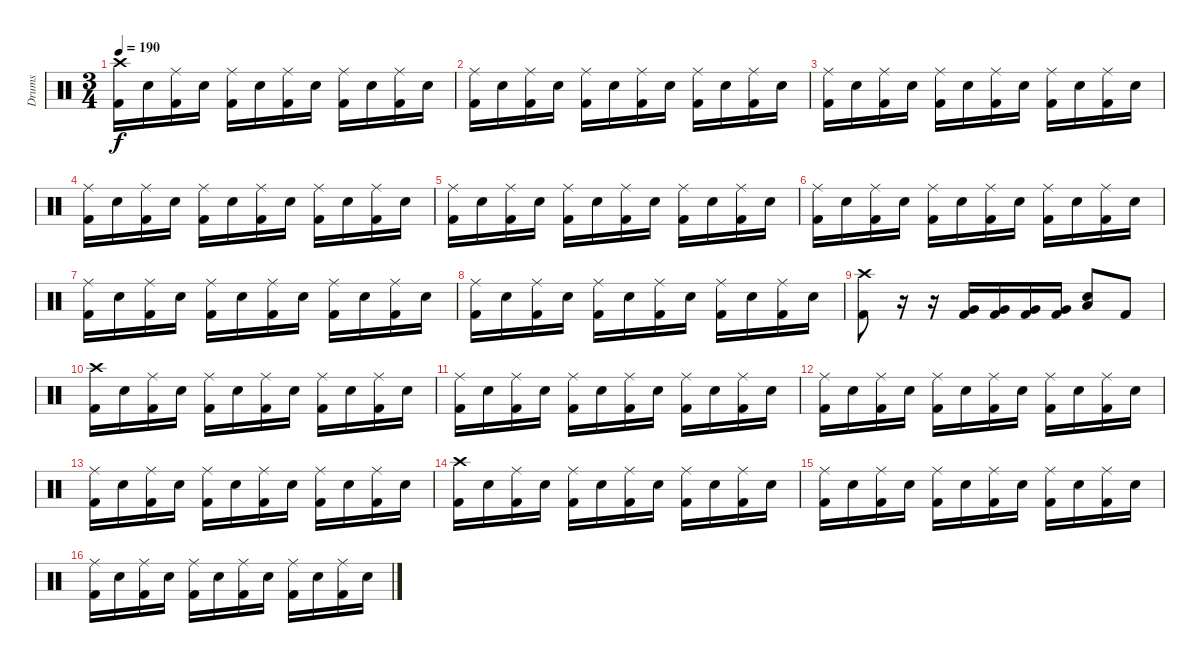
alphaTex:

\track ("Drums" "Drums") {instrument percussion}
\staff {score}
\articulation defaults
\ts (3 4)
\tempo 190
\clef neutral
\ks c
("Crash high (hit)" "Kick (hit) 2").16{dy f} "Snare (hit) 2".16 ("Ride (middle)" "Kick (hit) 2").16 "Snare (hit) 2".16 ("Ride (middle)" "Kick (hit) 2").16 "Snare (hit) 2".16 ("Ride (middle)" "Kick (hit) 2").16 "Snare (hit) 2".16 ("Ride (middle)" "Kick (hit) 2").16 "Snare (hit) 2".16 ("Ride (middle)" "Kick (hit) 2").16 "Snare (hit) 2".16 |
("Ride (middle)" "Kick (hit) 2").16 "Snare (hit) 2".16 ("Ride (middle)" "Kick (hit) 2").16 "Snare (hit) 2".16 ("Ride (middle)" "Kick (hit) 2").16 "Snare (hit) 2".16 ("Ride (middle)" "Kick (hit) 2").16 "Snare (hit) 2".16 ("Ride (middle)" "Kick (hit) 2").16 "Snare (hit) 2".16 ("Ride (middle)" "Kick (hit) 2").16 "Snare (hit) 2".16 |
("Ride (middle)" "Kick (hit) 2").16 "Snare (hit) 2".16 ("Ride (middle)" "Kick (hit) 2").16 "Snare (hit) 2".16 ("Ride (middle)" "Kick (hit) 2").16 "Snare (hit) 2".16 ("Ride (middle)" "Kick (hit) 2").16 "Snare (hit) 2".16 ("Ride (middle)" "Kick (hit) 2").16 "Snare (hit) 2".16 ("Ride (middle)" "Kick (hit) 2").16 "Snare (hit) 2".16 |
("Ride (middle)" "Kick (hit) 2").16 "Snare (hit) 2".16 ("Ride (middle)" "Kick (hit) 2").16 "Snare (hit) 2".16 ("Ride (middle)" "Kick (hit) 2").16 "Snare (hit) 2".16 ("Ride (middle)" "Kick (hit) 2").16 "Snare (hit) 2".16 ("Ride (middle)" "Kick (hit) 2").16 "Snare (hit) 2".16 ("Ride (middle)" "Kick (hit) 2").16 "Snare (hit) 2".16 |
("Ride (middle)" "Kick (hit) 2").16 "Snare (hit) 2".16 ("Ride (middle)" "Kick (hit) 2").16 "Snare (hit) 2".16 ("Ride (middle)" "Kick (hit) 2").16 "Snare (hit) 2".16 ("Ride (middle)" "Kick (hit) 2").16 "Snare (hit) 2".16 ("Ride (middle)" "Kick (hit) 2").16 "Snare (hit) 2".16 ("Ride (middle)" "Kick (hit) 2").16 "Snare (hit) 2".16 |
("Ride (middle)" "Kick (hit) 2").16 "Snare (hit) 2".16 ("Ride (middle)" "Kick (hit) 2").16 "Snare (hit) 2".16 ("Ride (middle)" "Kick (hit) 2").16 "Snare (hit) 2".16 ("Ride (middle)" "Kick (hit) 2").16 "Snare (hit) 2".16 ("Ride (middle)" "Kick (hit) 2").16 "Snare (hit) 2".16 ("Ride (middle)" "Kick (hit) 2").16 "Snare (hit) 2".16 |
("Ride (middle)" "Kick (hit) 2").16 "Snare (hit) 2".16 ("Ride (middle)" "Kick (hit) 2").16 "Snare (hit) 2".16 ("Ride (middle)" "Kick (hit) 2").16 "Snare (hit) 2".16 ("Ride (middle)" "Kick (hit) 2").16 "Snare (hit) 2".16 ("Ride (middle)" "Kick (hit) 2").16 "Snare (hit) 2".16 ("Ride (middle)" "Kick (hit) 2").16 "Snare (hit) 2".16 |
("Ride (middle)" "Kick (hit) 2").16 "Snare (hit) 2".16 ("Ride (middle)" "Kick (hit) 2").16 "Snare (hit) 2".16 ("Ride (middle)" "Kick (hit) 2").16 "Snare (hit) 2".16 ("Ride (middle)" "Kick (hit) 2").16 "Snare (hit) 2".16 ("Ride (middle)" "Kick (hit) 2").16 "Snare (hit) 2".16 ("Ride (middle)" "Kick (hit) 2").16 "Snare (hit) 2".16 |
("Crash high (hit)" "Kick (hit) 2").8 r.16 r.16 ("Very Low Tom (hit)" "Kick (hit) 2").16 ("Very Low Tom (hit)" "Kick (hit) 2").16 ("Very Low Tom (hit)" "Kick (hit) 2").16 ("Very Low Tom (hit)" "Kick (hit) 2").16 ("Low Tom (hit)" "Snare (hit) 2").8 "Kick (hit) 2".8 |
("Crash high (hit)" "Kick (hit) 2").16 "Snare (hit) 2".16 ("Ride (middle)" "Kick (hit) 2").16 "Snare (hit) 2".16 ("Ride (middle)" "Kick (hit) 2").16 "Snare (hit) 2".16 ("Ride (middle)" "Kick (hit) 2").16 "Snare (hit) 2".16 ("Ride (middle)" "Kick (hit) 2").16 "Snare (hit) 2".16 ("Ride (middle)" "Kick (hit) 2").16 "Snare (hit) 2".16 |
("Ride (middle)" "Kick (hit) 2").16 "Snare (hit) 2".16 ("Ride (middle)" "Kick (hit) 2").16 "Snare (hit) 2".16 ("Ride (middle)" "Kick (hit) 2").16 "Snare (hit) 2".16 ("Ride (middle)" "Kick (hit) 2").16 "Snare (hit) 2".16 ("Ride (middle)" "Kick (hit) 2").16 "Snare (hit) 2".16 ("Ride (middle)" "Kick (hit) 2").16 "Snare (hit) 2".16 |
("Ride (middle)" "Kick (hit) 2").16 "Snare (hit) 2".16 ("Ride (middle)" "Kick (hit) 2").16 "Snare (hit) 2".16 ("Ride (middle)" "Kick (hit) 2").16 "Snare (hit) 2".16 ("Ride (middle)" "Kick (hit) 2").16 "Snare (hit) 2".16 ("Ride (middle)" "Kick (hit) 2").16 "Snare (hit) 2".16 ("Ride (middle)" "Kick (hit) 2").16 "Snare (hit) 2".16 |
("Ride (middle)" "Kick (hit) 2").16 "Snare (hit) 2".16 ("Ride (middle)" "Kick (hit) 2").16 "Snare (hit) 2".16 ("Ride (middle)" "Kick (hit) 2").16 "Snare (hit) 2".16 ("Ride (middle)" "Kick (hit) 2").16 "Snare (hit) 2".16 ("Ride (middle)" "Kick (hit) 2").16 "Snare (hit) 2".16 ("Ride (middle)" "Kick (hit) 2").16 "Snare (hit) 2".16 |
("Crash high (hit)" "Kick (hit) 2").16 "Snare (hit) 2".16 ("Ride (middle)" "Kick (hit) 2").16 "Snare (hit) 2".16 ("Ride (middle)" "Kick (hit) 2").16 "Snare (hit) 2".16 ("Ride (middle)" "Kick (hit) 2").16 "Snare (hit) 2".16 ("Ride (middle)" "Kick (hit) 2").16 "Snare (hit) 2".16 ("Ride (middle)" "Kick (hit) 2").16 "Snare (hit) 2".16 |
("Ride (middle)" "Kick (hit) 2").16 "Snare (hit) 2".16 ("Ride (middle)" "Kick (hit) 2").16 "Snare (hit) 2".16 ("Ride (middle)" "Kick (hit) 2").16 "Snare (hit) 2".16 ("Ride (middle)" "Kick (hit) 2").16 "Snare (hit) 2".16 ("Ride (middle)" "Kick (hit) 2").16 "Snare (hit) 2".16 ("Ride (middle)" "Kick (hit) 2").16 "Snare (hit) 2".16 |
("Ride (middle)" "Kick (hit) 2").16 "Snare (hit) 2".16 ("Ride (middle)" "Kick (hit) 2").16 "Snare (hit) 2".16 ("Ride (middle)" "Kick (hit) 2").16 "Snare (hit) 2".16 ("Ride (middle)" "Kick (hit) 2").16 "Snare (hit) 2".16 ("Ride (middle)" "Kick (hit) 2").16 "Snare (hit) 2".16 ("Ride (middle)" "Kick (hit) 2").16 "Snare (hit) 2".16
